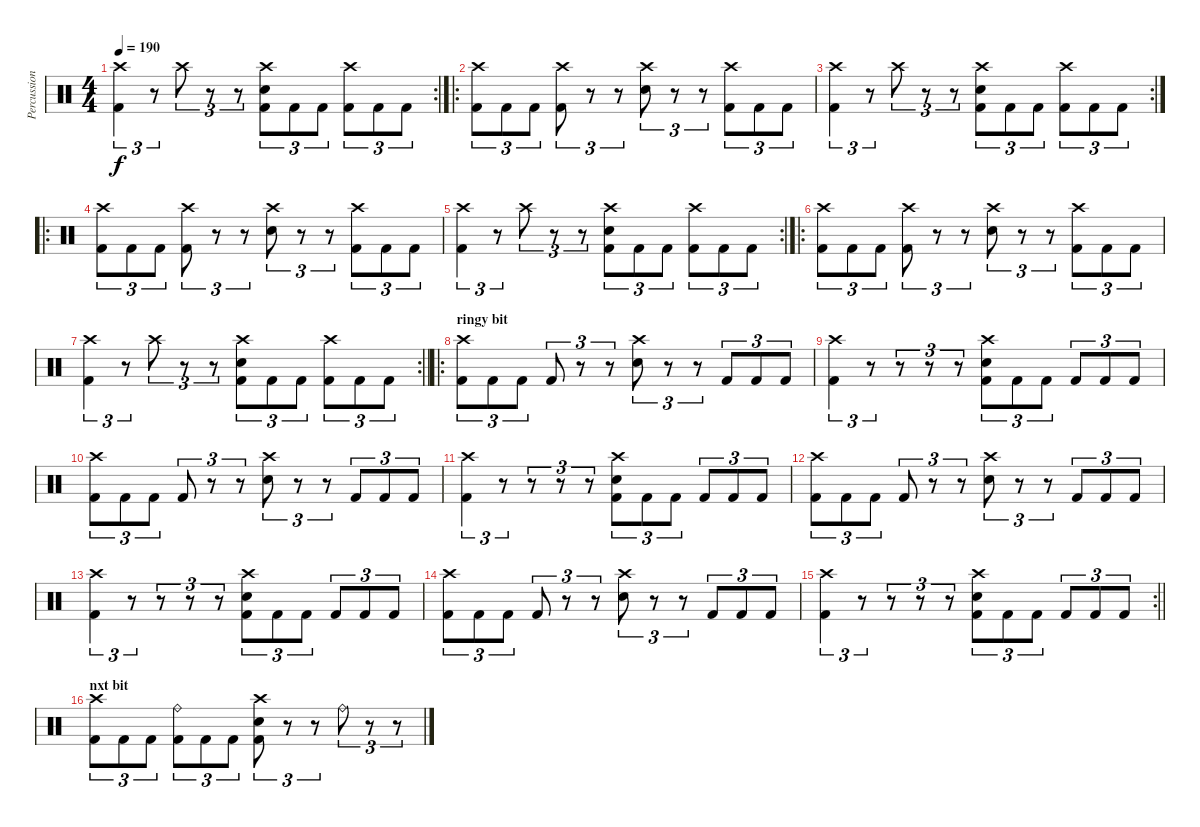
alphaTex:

\track ("Percussion" "Percussion") {instrument percussion}
\staff {score}
\articulation defaults
\rc 2
\ts (4 4)
\tempo 190
\clef neutral
\ks c
("Crash high (hit)" "Kick (hit) 2").4{tu (3 2) dy f} r.8{tu (3 2)} "Crash high (hit)".8{tu (3 2)} r.8{tu (3 2)} r.8{tu (3 2)} ("Crash high (hit)" "Electric Snare (hit)" "Kick (hit) 2").8{tu (3 2)} "Kick (hit) 2".8{tu (3 2)} "Kick (hit) 2".8{tu (3 2)} ("Crash high (hit)" "Kick (hit) 2").8{tu (3 2)} "Kick (hit) 2".8{tu (3 2)} "Kick (hit) 2".8{tu (3 2)} |
\ro
("Crash high (hit)" "Kick (hit) 2").8{tu (3 2)} "Kick (hit) 2".8{tu (3 2)} "Kick (hit) 2".8{tu (3 2)} ("Crash high (hit)" "Kick (hit) 2").8{tu (3 2)} r.8{tu (3 2)} r.8{tu (3 2)} ("Crash high (hit)" "Electric Snare (hit)").8{tu (3 2)} r.8{tu (3 2)} r.8{tu (3 2)} ("Crash high (hit)" "Kick (hit) 2").8{tu (3 2)} "Kick (hit) 2".8{tu (3 2)} "Kick (hit) 2".8{tu (3 2)} |
\rc 2
("Crash high (hit)" "Kick (hit) 2").4{tu (3 2)} r.8{tu (3 2)} "Crash high (hit)".8{tu (3 2)} r.8{tu (3 2)} r.8{tu (3 2)} ("Crash high (hit)" "Electric Snare (hit)" "Kick (hit) 2").8{tu (3 2)} "Kick (hit) 2".8{tu (3 2)} "Kick (hit) 2".8{tu (3 2)} ("Crash high (hit)" "Kick (hit) 2").8{tu (3 2)} "Kick (hit) 2".8{tu (3 2)} "Kick (hit) 2".8{tu (3 2)} |
\ro
("Crash high (hit)" "Kick (hit) 2").8{tu (3 2)} "Kick (hit) 2".8{tu (3 2)} "Kick (hit) 2".8{tu (3 2)} ("Crash high (hit)" "Kick (hit) 2").8{tu (3 2)} r.8{tu (3 2)} r.8{tu (3 2)} ("Crash high (hit)" "Electric Snare (hit)").8{tu (3 2)} r.8{tu (3 2)} r.8{tu (3 2)} ("Crash high (hit)" "Kick (hit) 2").8{tu (3 2)} "Kick (hit) 2".8{tu (3 2)} "Kick (hit) 2".8{tu (3 2)} |
\rc 2
("Crash high (hit)" "Kick (hit) 2").4{tu (3 2)} r.8{tu (3 2)} "Crash high (hit)".8{tu (3 2)} r.8{tu (3 2)} r.8{tu (3 2)} ("Crash high (hit)" "Electric Snare (hit)" "Kick (hit) 2").8{tu (3 2)} "Kick (hit) 2".8{tu (3 2)} "Kick (hit) 2".8{tu (3 2)} ("Crash high (hit)" "Kick (hit) 2").8{tu (3 2)} "Kick (hit) 2".8{tu (3 2)} "Kick (hit) 2".8{tu (3 2)} |
\ro
("Crash high (hit)" "Kick (hit) 2").8{tu (3 2)} "Kick (hit) 2".8{tu (3 2)} "Kick (hit) 2".8{tu (3 2)} ("Crash high (hit)" "Kick (hit) 2").8{tu (3 2)} r.8{tu (3 2)} r.8{tu (3 2)} ("Crash high (hit)" "Electric Snare (hit)").8{tu (3 2)} r.8{tu (3 2)} r.8{tu (3 2)} ("Crash high (hit)" "Kick (hit) 2").8{tu (3 2)} "Kick (hit) 2".8{tu (3 2)} "Kick (hit) 2".8{tu (3 2)} |
\rc 2
\barLineRight lightlight
("Crash high (hit)" "Kick (hit) 2").4{tu (3 2)} r.8{tu (3 2)} "Crash high (hit)".8{tu (3 2)} r.8{tu (3 2)} r.8{tu (3 2)} ("Crash high (hit)" "Electric Snare (hit)" "Kick (hit) 2").8{tu (3 2)} "Kick (hit) 2".8{tu (3 2)} "Kick (hit) 2".8{tu (3 2)} ("Crash high (hit)" "Kick (hit) 2").8{tu (3 2)} "Kick (hit) 2".8{tu (3 2)} "Kick (hit) 2".8{tu (3 2)} |
\ro
\section ("" "ringy bit")
("Crash high (hit)" "Kick (hit) 2").8{tu (3 2)} "Kick (hit) 2".8{tu (3 2)} "Kick (hit) 2".8{tu (3 2)} "Kick (hit) 2".8{tu (3 2)} r.8{tu (3 2)} r.8{tu (3 2)} ("Crash high (hit)" "Electric Snare (hit)").8{tu (3 2)} r.8{tu (3 2)} r.8{tu (3 2)} "Kick (hit) 2".8{tu (3 2)} "Kick (hit) 2".8{tu (3 2)} "Kick (hit) 2".8{tu (3 2)} |
("Crash high (hit)" "Kick (hit) 2").4{tu (3 2)} r.8{tu (3 2)} r.8{tu (3 2)} r.8{tu (3 2)} r.8{tu (3 2)} ("Crash high (hit)" "Electric Snare (hit)" "Kick (hit) 2").8{tu (3 2)} "Kick (hit) 2".8{tu (3 2)} "Kick (hit) 2".8{tu (3 2)} "Kick (hit) 2".8{tu (3 2)} "Kick (hit) 2".8{tu (3 2)} "Kick (hit) 2".8{tu (3 2)} |
("Crash high (hit)" "Kick (hit) 2").8{tu (3 2)} "Kick (hit) 2".8{tu (3 2)} "Kick (hit) 2".8{tu (3 2)} "Kick (hit) 2".8{tu (3 2)} r.8{tu (3 2)} r.8{tu (3 2)} ("Crash high (hit)" "Electric Snare (hit)").8{tu (3 2)} r.8{tu (3 2)} r.8{tu (3 2)} "Kick (hit) 2".8{tu (3 2)} "Kick (hit) 2".8{tu (3 2)} "Kick (hit) 2".8{tu (3 2)} |
("Crash high (hit)" "Kick (hit) 2").4{tu (3 2)} r.8{tu (3 2)} r.8{tu (3 2)} r.8{tu (3 2)} r.8{tu (3 2)} ("Crash high (hit)" "Electric Snare (hit)" "Kick (hit) 2").8{tu (3 2)} "Kick (hit) 2".8{tu (3 2)} "Kick (hit) 2".8{tu (3 2)} "Kick (hit) 2".8{tu (3 2)} "Kick (hit) 2".8{tu (3 2)} "Kick (hit) 2".8{tu (3 2)} |
("Crash high (hit)" "Kick (hit) 2").8{tu (3 2)} "Kick (hit) 2".8{tu (3 2)} "Kick (hit) 2".8{tu (3 2)} "Kick (hit) 2".8{tu (3 2)} r.8{tu (3 2)} r.8{tu (3 2)} ("Crash high (hit)" "Electric Snare (hit)").8{tu (3 2)} r.8{tu (3 2)} r.8{tu (3 2)} "Kick (hit) 2".8{tu (3 2)} "Kick (hit) 2".8{tu (3 2)} "Kick (hit) 2".8{tu (3 2)} |
("Crash high (hit)" "Kick (hit) 2").4{tu (3 2)} r.8{tu (3 2)} r.8{tu (3 2)} r.8{tu (3 2)} r.8{tu (3 2)} ("Crash high (hit)" "Electric Snare (hit)" "Kick (hit) 2").8{tu (3 2)} "Kick (hit) 2".8{tu (3 2)} "Kick (hit) 2".8{tu (3 2)} "Kick (hit) 2".8{tu (3 2)} "Kick (hit) 2".8{tu (3 2)} "Kick (hit) 2".8{tu (3 2)} |
("Crash high (hit)" "Kick (hit) 2").8{tu (3 2)} "Kick (hit) 2".8{tu (3 2)} "Kick (hit) 2".8{tu (3 2)} "Kick (hit) 2".8{tu (3 2)} r.8{tu (3 2)} r.8{tu (3 2)} ("Crash high (hit)" "Electric Snare (hit)").8{tu (3 2)} r.8{tu (3 2)} r.8{tu (3 2)} "Kick (hit) 2".8{tu (3 2)} "Kick (hit) 2".8{tu (3 2)} "Kick (hit) 2".8{tu (3 2)} |
\rc 2
\barLineRight lightlight
("Crash high (hit)" "Kick (hit) 2").4{tu (3 2)} r.8{tu (3 2)} r.8{tu (3 2)} r.8{tu (3 2)} r.8{tu (3 2)} ("Crash high (hit)" "Electric Snare (hit)" "Kick (hit) 2").8{tu (3 2)} "Kick (hit) 2".8{tu (3 2)} "Kick (hit) 2".8{tu (3 2)} "Kick (hit) 2".8{tu (3 2)} "Kick (hit) 2".8{tu (3 2)} "Kick (hit) 2".8{tu (3 2)} |
\section ("" "nxt bit")
("Crash high (hit)" "Kick (hit) 2").8{tu (3 2)} "Kick (hit) 2".8{tu (3 2)} "Kick (hit) 2".8{tu (3 2)} ("Ride (bell)" "Kick (hit) 2").8{tu (3 2)} "Kick (hit) 2".8{tu (3 2)} "Kick (hit) 2".8{tu (3 2)} ("Crash high (hit)" "Electric Snare (hit)" "Kick (hit) 2").8{tu (3 2)} r.8{tu (3 2)} r.8{tu (3 2)} "Ride (bell)".8{tu (3 2)} r.8{tu (3 2)} r.8{tu (3 2)}
